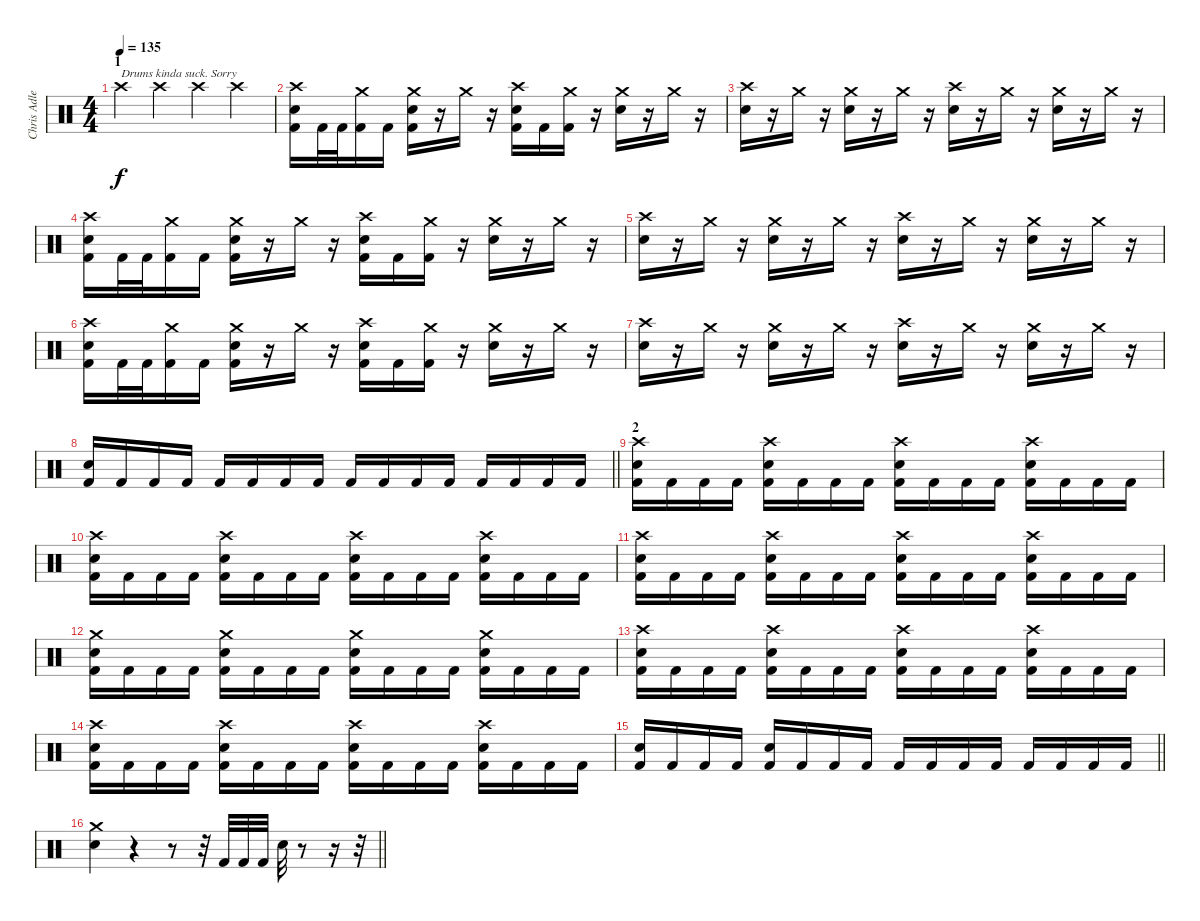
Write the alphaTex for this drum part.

\track ("Chris Adler" "Chris Adle") {instrument percussion}
\staff {score}
\articulation defaults
\ts (4 4)
\section ("" "1")
\tempo 135
\clef neutral
\ks c "Crash high (hit)".4{txt "Drums kinda suck. Sorry" dy f} "Crash high (hit)".4 "Crash high (hit)".4 "Crash high (hit)".4
|
("Crash high (hit)" "Electric Snare (hit)" "Kick (hit) 2").16 "Kick (hit) 2".32 "Kick (hit) 2".32 ("Crash medium (hit)" "Kick (hit) 2").16 "Kick (hit) 2".16 ("Crash medium (hit)" "Electric Snare (hit)" "Kick (hit) 2").16 r.16 "Crash medium (hit)".16 r.16 ("Crash high (hit)" "Electric Snare (hit)" "Kick (hit) 2").16 "Kick (hit) 2".16 ("Crash medium (hit)" "Kick (hit) 2").16 r.16 ("Crash medium (hit)" "Electric Snare (hit)").16 r.16 "Crash medium (hit)".16 r.16 |
("Crash high (hit)" "Electric Snare (hit)").16 r.16 "Crash medium (hit)".16 r.16 ("Crash medium (hit)" "Electric Snare (hit)").16 r.16 "Crash medium (hit)".16 r.16 ("Crash high (hit)" "Electric Snare (hit)").16 r.16 "Crash medium (hit)".16 r.16 ("Crash medium (hit)" "Electric Snare (hit)").16 r.16 "Crash medium (hit)".16 r.16 |
("Crash high (hit)" "Electric Snare (hit)" "Kick (hit) 2").16 "Kick (hit) 2".32 "Kick (hit) 2".32 ("Crash medium (hit)" "Kick (hit) 2").16 "Kick (hit) 2".16 ("Crash medium (hit)" "Electric Snare (hit)" "Kick (hit) 2").16 r.16 "Crash medium (hit)".16 r.16 ("Crash high (hit)" "Electric Snare (hit)" "Kick (hit) 2").16 "Kick (hit) 2".16 ("Crash medium (hit)" "Kick (hit) 2").16 r.16 ("Crash medium (hit)" "Electric Snare (hit)").16 r.16 "Crash medium (hit)".16 r.16 |
("Crash high (hit)" "Electric Snare (hit)").16 r.16 "Crash medium (hit)".16 r.16 ("Crash medium (hit)" "Electric Snare (hit)").16 r.16 "Crash medium (hit)".16 r.16 ("Crash high (hit)" "Electric Snare (hit)").16 r.16 "Crash medium (hit)".16 r.16 ("Crash medium (hit)" "Electric Snare (hit)").16 r.16 "Crash medium (hit)".16 r.16 |
("Crash high (hit)" "Electric Snare (hit)" "Kick (hit) 2").16 "Kick (hit) 2".32 "Kick (hit) 2".32 ("Crash medium (hit)" "Kick (hit) 2").16 "Kick (hit) 2".16 ("Crash medium (hit)" "Electric Snare (hit)" "Kick (hit) 2").16 r.16 "Crash medium (hit)".16 r.16 ("Crash high (hit)" "Electric Snare (hit)" "Kick (hit) 2").16 "Kick (hit) 2".16 ("Crash medium (hit)" "Kick (hit) 2").16 r.16 ("Crash medium (hit)" "Electric Snare (hit)").16 r.16 "Crash medium (hit)".16 r.16 |
("Crash high (hit)" "Electric Snare (hit)").16 r.16 "Crash medium (hit)".16 r.16 ("Crash medium (hit)" "Electric Snare (hit)").16 r.16 "Crash medium (hit)".16 r.16 ("Crash high (hit)" "Electric Snare (hit)").16 r.16 "Crash medium (hit)".16 r.16 ("Crash medium (hit)" "Electric Snare (hit)").16 r.16 "Crash medium (hit)".16 r.16 |
\barLineRight lightlight
("Electric Snare (hit)" "Kick (hit) 2").16 "Kick (hit) 2".16 "Kick (hit) 2".16 "Kick (hit) 2".16 "Kick (hit) 2".16 "Kick (hit) 2".16 "Kick (hit) 2".16 "Kick (hit) 2".16 "Kick (hit) 2".16 "Kick (hit) 2".16 "Kick (hit) 2".16 "Kick (hit) 2".16 "Kick (hit) 2".16 "Kick (hit) 2".16 "Kick (hit) 2".16 "Kick (hit) 2".16 |
\section ("" "2")
("Crash high (hit)" "Electric Snare (hit)" "Kick (hit) 2").16 "Kick (hit) 2".16 "Kick (hit) 2".16 "Kick (hit) 2".16 ("Crash high (hit)" "Electric Snare (hit)" "Kick (hit) 2").16 "Kick (hit) 2".16 "Kick (hit) 2".16 "Kick (hit) 2".16 ("Crash high (hit)" "Electric Snare (hit)" "Kick (hit) 2").16 "Kick (hit) 2".16 "Kick (hit) 2".16 "Kick (hit) 2".16 ("Crash high (hit)" "Electric Snare (hit)" "Kick (hit) 2").16 "Kick (hit) 2".16 "Kick (hit) 2".16 "Kick (hit) 2".16 |
("Crash high (hit)" "Electric Snare (hit)" "Kick (hit) 2").16 "Kick (hit) 2".16 "Kick (hit) 2".16 "Kick (hit) 2".16 ("Crash high (hit)" "Electric Snare (hit)" "Kick (hit) 2").16 "Kick (hit) 2".16 "Kick (hit) 2".16 "Kick (hit) 2".16 ("Crash high (hit)" "Electric Snare (hit)" "Kick (hit) 2").16 "Kick (hit) 2".16 "Kick (hit) 2".16 "Kick (hit) 2".16 ("Crash high (hit)" "Electric Snare (hit)" "Kick (hit) 2").16 "Kick (hit) 2".16 "Kick (hit) 2".16 "Kick (hit) 2".16 |
("Crash high (hit)" "Electric Snare (hit)" "Kick (hit) 2").16 "Kick (hit) 2".16 "Kick (hit) 2".16 "Kick (hit) 2".16 ("Crash high (hit)" "Electric Snare (hit)" "Kick (hit) 2").16 "Kick (hit) 2".16 "Kick (hit) 2".16 "Kick (hit) 2".16 ("Crash high (hit)" "Electric Snare (hit)" "Kick (hit) 2").16 "Kick (hit) 2".16 "Kick (hit) 2".16 "Kick (hit) 2".16 ("Crash high (hit)" "Electric Snare (hit)" "Kick (hit) 2").16 "Kick (hit) 2".16 "Kick (hit) 2".16 "Kick (hit) 2".16 |
("Crash medium (hit)" "Electric Snare (hit)" "Kick (hit) 2").16 "Kick (hit) 2".16 "Kick (hit) 2".16 "Kick (hit) 2".16 ("Crash medium (hit)" "Electric Snare (hit)" "Kick (hit) 2").16 "Kick (hit) 2".16 "Kick (hit) 2".16 "Kick (hit) 2".16 ("Crash medium (hit)" "Electric Snare (hit)" "Kick (hit) 2").16 "Kick (hit) 2".16 "Kick (hit) 2".16 "Kick (hit) 2".16 ("Crash medium (hit)" "Electric Snare (hit)" "Kick (hit) 2").16 "Kick (hit) 2".16 "Kick (hit) 2".16 "Kick (hit) 2".16 |
("Crash high (hit)" "Electric Snare (hit)" "Kick (hit) 2").16 "Kick (hit) 2".16 "Kick (hit) 2".16 "Kick (hit) 2".16 ("Crash high (hit)" "Electric Snare (hit)" "Kick (hit) 2").16 "Kick (hit) 2".16 "Kick (hit) 2".16 "Kick (hit) 2".16 ("Crash high (hit)" "Electric Snare (hit)" "Kick (hit) 2").16 "Kick (hit) 2".16 "Kick (hit) 2".16 "Kick (hit) 2".16 ("Crash high (hit)" "Electric Snare (hit)" "Kick (hit) 2").16 "Kick (hit) 2".16 "Kick (hit) 2".16 "Kick (hit) 2".16 |
("Crash high (hit)" "Electric Snare (hit)" "Kick (hit) 2").16 "Kick (hit) 2".16 "Kick (hit) 2".16 "Kick (hit) 2".16 ("Crash high (hit)" "Electric Snare (hit)" "Kick (hit) 2").16 "Kick (hit) 2".16 "Kick (hit) 2".16 "Kick (hit) 2".16 ("Crash high (hit)" "Electric Snare (hit)" "Kick (hit) 2").16 "Kick (hit) 2".16 "Kick (hit) 2".16 "Kick (hit) 2".16 ("Crash high (hit)" "Electric Snare (hit)" "Kick (hit) 2").16 "Kick (hit) 2".16 "Kick (hit) 2".16 "Kick (hit) 2".16 |
\barLineRight lightlight
("Electric Snare (hit)" "Kick (hit) 2").16 "Kick (hit) 2".16 "Kick (hit) 2".16 "Kick (hit) 2".16 ("Electric Snare (hit)" "Kick (hit) 2").16 "Kick (hit) 2".16 "Kick (hit) 2".16 "Kick (hit) 2".16 "Kick (hit) 2".16 "Kick (hit) 2".16 "Kick (hit) 2".16 "Kick (hit) 2".16 "Kick (hit) 2".16 "Kick (hit) 2".16 "Kick (hit) 2".16 "Kick (hit) 2".16 |
\barLineRight lightlight
("Crash medium (hit)" "Electric Snare (hit)").4 r.4 r.8 r.32 "Kick (hit) 2".32 "Kick (hit) 2".32 "Kick (hit) 2".32 "Electric Snare (hit)".32 r.8 r.16 r.32
